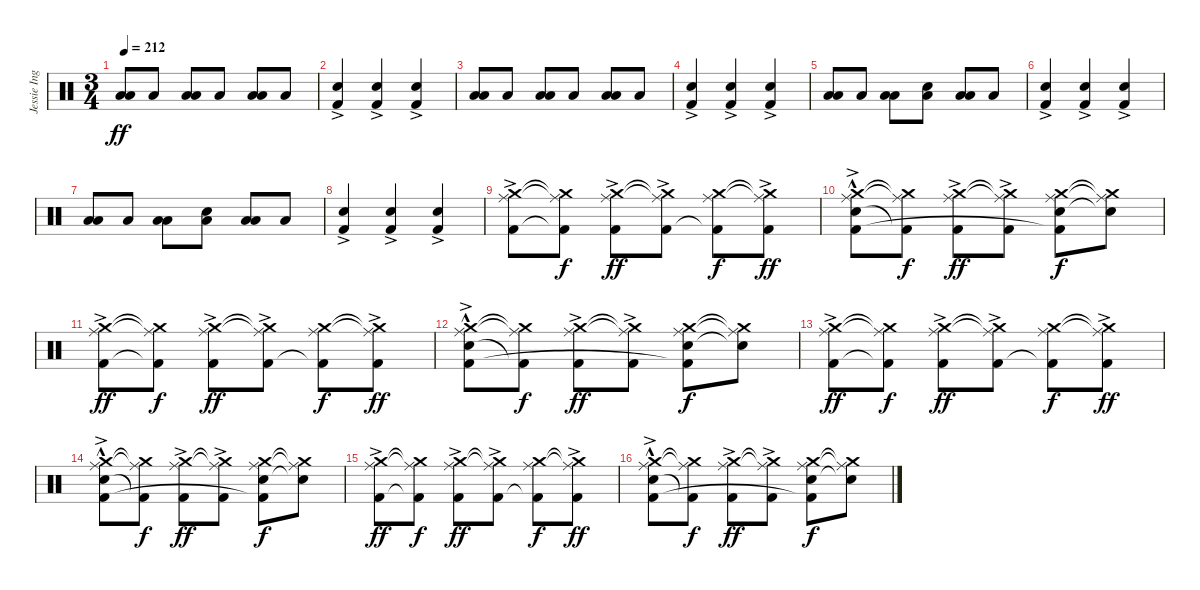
\track ("Jessie Ingelevics" "Jessie Ing") {instrument percussion}
\staff {score}
\articulation defaults
\ts (3 4)
\tempo 212
\clef neutral
\ks c
("Low Tom (hit)" "Low Floor Tom (hit)").8{dy ff} "Low Floor Tom (hit)".8 ("Low Tom (hit)" "Low Floor Tom (hit)").8 "Low Floor Tom (hit)".8 ("Low Tom (hit)" "Low Floor Tom (hit)").8 "Low Floor Tom (hit)".8 |
("Electric Snare (hit)"{ac} "Kick (hit) 2").4 ("Electric Snare (hit)"{ac} "Kick (hit) 2").4 ("Electric Snare (hit)"{ac} "Kick (hit) 2").4 |
("Low Tom (hit)" "Low Floor Tom (hit)").8 "Low Floor Tom (hit)".8 ("Low Tom (hit)" "Low Floor Tom (hit)").8 "Low Floor Tom (hit)".8 ("Low Tom (hit)" "Low Floor Tom (hit)").8 "Low Floor Tom (hit)".8 |
("Electric Snare (hit)"{ac} "Kick (hit) 2").4 ("Electric Snare (hit)"{ac} "Kick (hit) 2").4 ("Electric Snare (hit)"{ac} "Kick (hit) 2").4 |
("Low Tom (hit)" "Low Floor Tom (hit)").8 "Low Floor Tom (hit)".8 ("Low Tom (hit)" "Low Floor Tom (hit)").8 ("Low Floor Tom (hit)" "Electric Snare (hit)").8 ("Low Tom (hit)" "Low Floor Tom (hit)").8 "Low Floor Tom (hit)".8 |
("Electric Snare (hit)"{ac} "Kick (hit) 2").4 ("Electric Snare (hit)"{ac} "Kick (hit) 2").4 ("Electric Snare (hit)"{ac} "Kick (hit) 2").4 |
("Low Tom (hit)" "Low Floor Tom (hit)").8 "Low Floor Tom (hit)".8 ("Low Tom (hit)" "Low Floor Tom (hit)").8 ("Low Floor Tom (hit)" "Electric Snare (hit)").8 ("Low Tom (hit)" "Low Floor Tom (hit)").8 "Low Floor Tom (hit)".8 |
("Electric Snare (hit)"{ac} "Kick (hit) 2").4 ("Electric Snare (hit)"{ac} "Kick (hit) 2").4 ("Electric Snare (hit)"{ac} "Kick (hit) 2").4 |
("Crash medium (hit)" "Ride (middle)" "Kick (hit) 2"{ac}).8 ("Crash medium (hit)"{t} "Ride (middle)"{t} "Kick (hit) 2"{t}).8{dy f} ("Crash medium (hit)" "Ride (middle)" "Kick (hit) 2"{ac}).8{dy ff} ("Crash medium (hit)"{t} "Ride (middle)"{t} "Kick (hit) 2"{ac}).8 ("Crash medium (hit)" "Ride (middle)" "Kick (hit) 2"{t}).8{dy f} ("Crash medium (hit)"{t} "Ride (middle)"{t} "Kick (hit) 2"{ac}).8{dy ff} |
("Crash medium (hit)" "Ride (middle)" "Electric Snare (hit)"{hac} "Kick (hit) 2"{ac}).8 ("Crash medium (hit)"{t} "Ride (middle)"{t} "Kick (hit) 2"{t}).8{dy f} ("Crash medium (hit)" "Ride (middle)" "Kick (hit) 2"{ac}).8{dy ff} ("Crash medium (hit)"{t} "Ride (middle)"{t} "Kick (hit) 2"{ac}).8 ("Crash medium (hit)" "Ride (middle)" "Electric Snare (hit)" "Kick (hit) 2"{t}).8{dy f} ("Crash medium (hit)"{t} "Ride (middle)"{t} "Electric Snare (hit)"{t}).8 |
("Crash medium (hit)" "Ride (middle)" "Kick (hit) 2"{ac}).8{dy ff} ("Crash medium (hit)"{t} "Ride (middle)"{t} "Kick (hit) 2"{t}).8{dy f} ("Crash medium (hit)" "Ride (middle)" "Kick (hit) 2"{ac}).8{dy ff} ("Crash medium (hit)"{t} "Ride (middle)"{t} "Kick (hit) 2"{ac}).8 ("Crash medium (hit)" "Ride (middle)" "Kick (hit) 2"{t}).8{dy f} ("Crash medium (hit)"{t} "Ride (middle)"{t} "Kick (hit) 2"{ac}).8{dy ff} |
("Crash medium (hit)" "Ride (middle)" "Electric Snare (hit)"{hac} "Kick (hit) 2"{ac}).8 ("Crash medium (hit)"{t} "Ride (middle)"{t} "Kick (hit) 2"{t}).8{dy f} ("Crash medium (hit)" "Ride (middle)" "Kick (hit) 2"{ac}).8{dy ff} ("Crash medium (hit)"{t} "Ride (middle)"{t} "Kick (hit) 2"{ac}).8 ("Crash medium (hit)" "Ride (middle)" "Electric Snare (hit)" "Kick (hit) 2"{t}).8{dy f} ("Crash medium (hit)"{t} "Ride (middle)"{t} "Electric Snare (hit)"{t}).8 |
("Crash medium (hit)" "Ride (middle)" "Kick (hit) 2"{ac}).8{dy ff} ("Crash medium (hit)"{t} "Ride (middle)"{t} "Kick (hit) 2"{t}).8{dy f} ("Crash medium (hit)" "Ride (middle)" "Kick (hit) 2"{ac}).8{dy ff} ("Crash medium (hit)"{t} "Ride (middle)"{t} "Kick (hit) 2"{ac}).8 ("Crash medium (hit)" "Ride (middle)" "Kick (hit) 2"{t}).8{dy f} ("Crash medium (hit)"{t} "Ride (middle)"{t} "Kick (hit) 2"{ac}).8{dy ff} |
("Crash medium (hit)" "Ride (middle)" "Electric Snare (hit)"{hac} "Kick (hit) 2"{ac}).8 ("Crash medium (hit)"{t} "Ride (middle)"{t} "Kick (hit) 2"{t}).8{dy f} ("Crash medium (hit)" "Ride (middle)" "Kick (hit) 2"{ac}).8{dy ff} ("Crash medium (hit)"{t} "Ride (middle)"{t} "Kick (hit) 2"{ac}).8 ("Crash medium (hit)" "Ride (middle)" "Electric Snare (hit)" "Kick (hit) 2"{t}).8{dy f} ("Crash medium (hit)"{t} "Ride (middle)"{t} "Electric Snare (hit)"{t}).8 |
("Crash medium (hit)" "Ride (middle)" "Kick (hit) 2"{ac}).8{dy ff} ("Crash medium (hit)"{t} "Ride (middle)"{t} "Kick (hit) 2"{t}).8{dy f} ("Crash medium (hit)" "Ride (middle)" "Kick (hit) 2"{ac}).8{dy ff} ("Crash medium (hit)"{t} "Ride (middle)"{t} "Kick (hit) 2"{ac}).8 ("Crash medium (hit)" "Ride (middle)" "Kick (hit) 2"{t}).8{dy f} ("Crash medium (hit)"{t} "Ride (middle)"{t} "Kick (hit) 2"{ac}).8{dy ff} |
("Crash medium (hit)" "Ride (middle)" "Electric Snare (hit)"{hac} "Kick (hit) 2"{ac}).8 ("Crash medium (hit)"{t} "Ride (middle)"{t} "Kick (hit) 2"{t}).8{dy f} ("Crash medium (hit)" "Ride (middle)" "Kick (hit) 2"{ac}).8{dy ff} ("Crash medium (hit)"{t} "Ride (middle)"{t} "Kick (hit) 2"{ac}).8 ("Crash medium (hit)" "Ride (middle)" "Electric Snare (hit)" "Kick (hit) 2"{t}).8{dy f} ("Crash medium (hit)"{t} "Ride (middle)"{t} "Electric Snare (hit)"{t}).8
